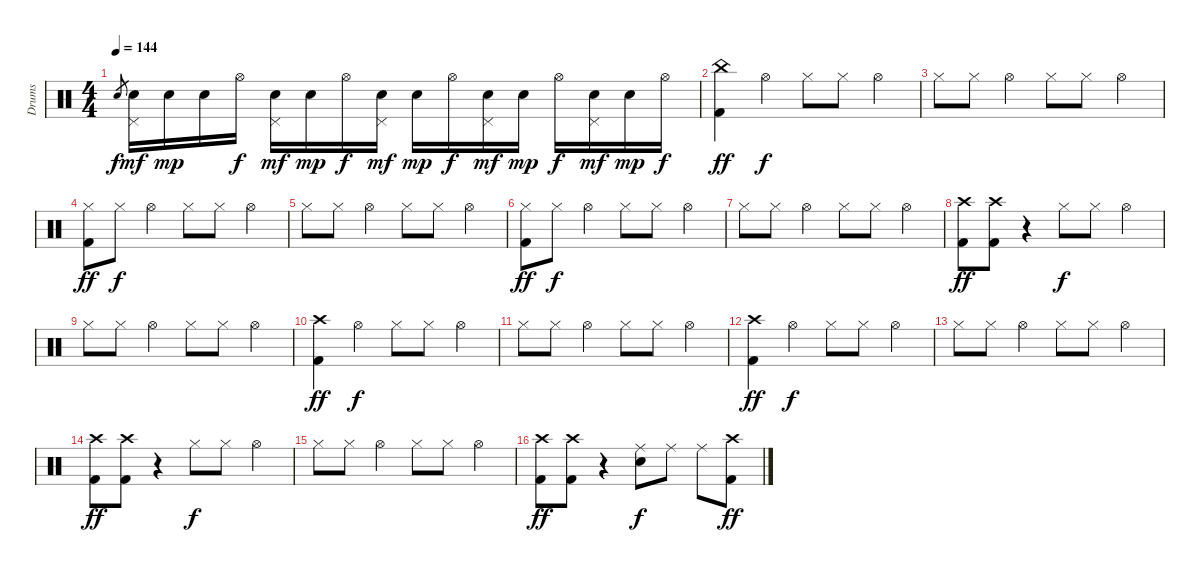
\track ("Drums" "Drums") {instrument percussion}
\staff {score}
\articulation defaults
\ts (4 4)
\tempo 144
\clef neutral
\ks c "Snare (hit) 2".8{gr dy f}
("Pedal Hi-Hat (hit)" "Snare (hit) 2").16{dy mf} "Snare (hit) 2".16{dy mp} "Snare (hit) 2".16 "Hi-Hat (open)".16{dy f} ("Pedal Hi-Hat (hit)" "Snare (hit) 2").16{dy mf} "Snare (hit) 2".16{dy mp} "Hi-Hat (open)".16{dy f} ("Pedal Hi-Hat (hit)" "Snare (hit) 2").16{dy mf} "Snare (hit) 2".16{dy mp} "Hi-Hat (open)".16{dy f} ("Pedal Hi-Hat (hit)" "Snare (hit) 2").16{dy mf} "Snare (hit) 2".16{dy mp} "Hi-Hat (open)".16{dy f} ("Pedal Hi-Hat (hit)" "Snare (hit) 2").16{dy mf} "Snare (hit) 2".16{dy mp} "Hi-Hat (open)".16{dy f} |
("China (hit)" "Kick (hit) 2").4{dy ff} "Hi-Hat (open)".4{dy f} "Hi-Hat (closed)".8 "Hi-Hat (closed)".8 "Hi-Hat (open)".4 |
"Hi-Hat (closed)".8 "Hi-Hat (closed)".8 "Hi-Hat (open)".4 "Hi-Hat (closed)".8 "Hi-Hat (closed)".8 "Hi-Hat (open)".4 |
("Hi-Hat (closed)" "Kick (hit) 2").8{dy ff} "Hi-Hat (closed)".8{dy f} "Hi-Hat (open)".4 "Hi-Hat (closed)".8 "Hi-Hat (closed)".8 "Hi-Hat (open)".4 |
"Hi-Hat (closed)".8 "Hi-Hat (closed)".8 "Hi-Hat (open)".4 "Hi-Hat (closed)".8 "Hi-Hat (closed)".8 "Hi-Hat (open)".4 |
("Hi-Hat (closed)" "Kick (hit) 2").8{dy ff} "Hi-Hat (closed)".8{dy f} "Hi-Hat (open)".4 "Hi-Hat (closed)".8 "Hi-Hat (closed)".8 "Hi-Hat (open)".4 |
"Hi-Hat (closed)".8 "Hi-Hat (closed)".8 "Hi-Hat (open)".4 "Hi-Hat (closed)".8 "Hi-Hat (closed)".8 "Hi-Hat (open)".4 |
("Crash high (hit)" "Kick (hit) 2").8{dy ff} ("Crash high (hit)" "Kick (hit) 2").8 r.4 "Hi-Hat (closed)".8{dy f} "Hi-Hat (closed)".8 "Hi-Hat (open)".4 |
"Hi-Hat (closed)".8 "Hi-Hat (closed)".8 "Hi-Hat (open)".4 "Hi-Hat (closed)".8 "Hi-Hat (closed)".8 "Hi-Hat (open)".4 |
("Crash high (hit)" "Kick (hit) 2").4{dy ff} "Hi-Hat (open)".4{dy f} "Hi-Hat (closed)".8 "Hi-Hat (closed)".8 "Hi-Hat (open)".4 |
"Hi-Hat (closed)".8 "Hi-Hat (closed)".8 "Hi-Hat (open)".4 "Hi-Hat (closed)".8 "Hi-Hat (closed)".8 "Hi-Hat (open)".4 |
("Crash high (hit)" "Kick (hit) 2").4{dy ff} "Hi-Hat (open)".4{dy f} "Hi-Hat (closed)".8 "Hi-Hat (closed)".8 "Hi-Hat (open)".4 |
"Hi-Hat (closed)".8 "Hi-Hat (closed)".8 "Hi-Hat (open)".4 "Hi-Hat (closed)".8 "Hi-Hat (closed)".8 "Hi-Hat (open)".4 |
("Crash high (hit)" "Kick (hit) 2").8{dy ff} ("Crash high (hit)" "Kick (hit) 2").8 r.4 "Hi-Hat (closed)".8{dy f} "Hi-Hat (closed)".8 "Hi-Hat (open)".4 |
"Hi-Hat (closed)".8 "Hi-Hat (closed)".8 "Hi-Hat (open)".4 "Hi-Hat (closed)".8 "Hi-Hat (closed)".8 "Hi-Hat (open)".4 |
("Crash high (hit)" "Kick (hit) 2").8{dy ff} ("Crash high (hit)" "Kick (hit) 2").8 r.4 ("Ride (middle)" "Snare (hit) 2").8{dy f} "Ride (middle)".8 "Ride (middle)".8 ("Crash high (hit)" "Kick (hit) 2").8{dy ff}
